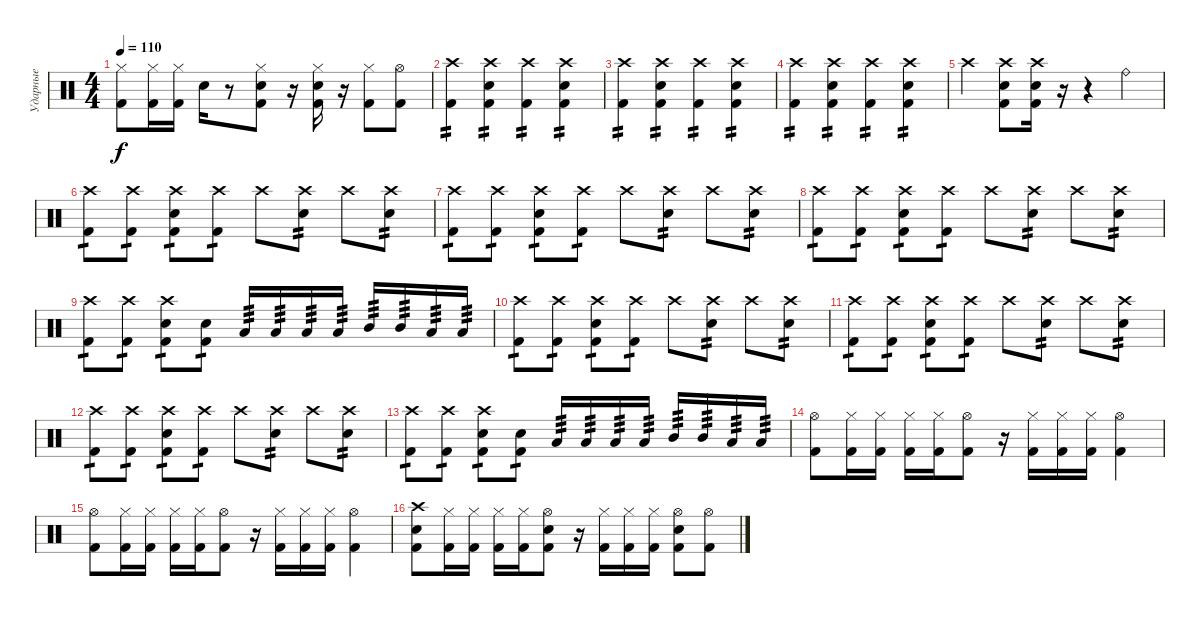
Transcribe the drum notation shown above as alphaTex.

\track ("Ударные" "Ударные") {instrument percussion}
\staff {score}
\articulation defaults
\ts (4 4)
\tempo 110
\clef neutral
\ks c
("Hi-Hat (closed)" "Kick (hit) 2").8{dy f} ("Hi-Hat (closed)" "Kick (hit) 2").16 ("Hi-Hat (closed)" "Kick (hit) 2").16 "Snare (hit) 2".16 r.8 ("Snare (hit) 2" "Hi-Hat (closed)" "Kick (hit) 2").8 r.16 ("Snare (hit) 2" "Hi-Hat (closed)" "Kick (hit) 2").16 r.16 ("Hi-Hat (closed)" "Kick (hit) 2").8 ("Hi-Hat (open)" "Kick (hit) 2").8 |
("Crash high (hit)" "Kick (hit) 2").4{tp 2} ("Crash high (hit)" "Snare (hit) 2" "Kick (hit) 2").4{tp 2} ("Crash high (hit)" "Kick (hit) 2").4{tp 2} ("Crash high (hit)" "Snare (hit) 2" "Kick (hit) 2").4{tp 2} |
("Crash high (hit)" "Kick (hit) 2").4{tp 2} ("Crash high (hit)" "Snare (hit) 2" "Kick (hit) 2").4{tp 2} ("Crash high (hit)" "Kick (hit) 2").4{tp 2} ("Crash high (hit)" "Snare (hit) 2" "Kick (hit) 2").4{tp 2} |
("Crash high (hit)" "Kick (hit) 2").4{tp 2} ("Crash high (hit)" "Snare (hit) 2" "Kick (hit) 2").4{tp 2} ("Crash high (hit)" "Kick (hit) 2").4{tp 2} ("Crash high (hit)" "Snare (hit) 2" "Kick (hit) 2").4{tp 2} |
"Crash high (hit)".4 ("Crash high (hit)" "Snare (hit) 2" "Kick (hit) 2").8 ("Crash high (hit)" "Snare (hit) 2" "Kick (hit) 2").16 r.16 r.4 "Ride (bell)".4 |
("Crash high (hit)" "Kick (hit) 2").8{tp 1} ("Crash high (hit)" "Kick (hit) 2").8{tp 1} ("Crash high (hit)" "Snare (hit) 2" "Kick (hit) 2").8{tp 1} ("Crash high (hit)" "Kick (hit) 2").8{tp 1} "Crash high (hit)".8 ("Crash high (hit)" "Snare (hit) 2").8{tp 2} "Crash high (hit)".8 ("Crash high (hit)" "Snare (hit) 2").8{tp 2} |
("Crash high (hit)" "Kick (hit) 2").8{tp 1} ("Crash high (hit)" "Kick (hit) 2").8{tp 1} ("Crash high (hit)" "Snare (hit) 2" "Kick (hit) 2").8{tp 1} ("Crash high (hit)" "Kick (hit) 2").8{tp 1} "Crash high (hit)".8 ("Crash high (hit)" "Snare (hit) 2").8{tp 2} "Crash high (hit)".8 ("Crash high (hit)" "Snare (hit) 2").8{tp 2} |
("Crash high (hit)" "Kick (hit) 2").8{tp 1} ("Crash high (hit)" "Kick (hit) 2").8{tp 1} ("Crash high (hit)" "Snare (hit) 2" "Kick (hit) 2").8{tp 1} ("Crash high (hit)" "Kick (hit) 2").8{tp 1} "Crash high (hit)".8 ("Crash high (hit)" "Snare (hit) 2").8{tp 2} "Crash high (hit)".8 ("Crash high (hit)" "Snare (hit) 2").8{tp 2} |
("Crash high (hit)" "Kick (hit) 2").8{tp 1} ("Crash high (hit)" "Kick (hit) 2").8{tp 1} ("Crash high (hit)" "Snare (hit) 2" "Kick (hit) 2").8{tp 1} ("Snare (hit) 2" "Kick (hit) 2").8{tp 1} "Low Tom (hit)".16{tp 3} "Low Tom (hit)".16{tp 3} "Low Floor Tom (hit)".16{tp 3} "Low Floor Tom (hit)".16{tp 3} "Mid Tom (hit)".16{tp 3} "Mid Tom (hit)".16{tp 3} "Low Floor Tom (hit)".16{tp 3} "Low Floor Tom (hit)".16{tp 3} |
("Crash high (hit)" "Kick (hit) 2").8{tp 1} ("Crash high (hit)" "Kick (hit) 2").8{tp 1} ("Crash high (hit)" "Snare (hit) 2" "Kick (hit) 2").8{tp 1} ("Crash high (hit)" "Kick (hit) 2").8{tp 1} "Crash high (hit)".8 ("Crash high (hit)" "Snare (hit) 2").8{tp 2} "Crash high (hit)".8 ("Crash high (hit)" "Snare (hit) 2").8{tp 2} |
("Crash high (hit)" "Kick (hit) 2").8{tp 1} ("Crash high (hit)" "Kick (hit) 2").8{tp 1} ("Crash high (hit)" "Snare (hit) 2" "Kick (hit) 2").8{tp 1} ("Crash high (hit)" "Kick (hit) 2").8{tp 1} "Crash high (hit)".8 ("Crash high (hit)" "Snare (hit) 2").8{tp 2} "Crash high (hit)".8 ("Crash high (hit)" "Snare (hit) 2").8{tp 2} |
("Crash high (hit)" "Kick (hit) 2").8{tp 1} ("Crash high (hit)" "Kick (hit) 2").8{tp 1} ("Crash high (hit)" "Snare (hit) 2" "Kick (hit) 2").8{tp 1} ("Crash high (hit)" "Kick (hit) 2").8{tp 1} "Crash high (hit)".8 ("Crash high (hit)" "Snare (hit) 2").8{tp 2} "Crash high (hit)".8 ("Crash high (hit)" "Snare (hit) 2").8{tp 2} |
("Crash high (hit)" "Kick (hit) 2").8{tp 1} ("Crash high (hit)" "Kick (hit) 2").8{tp 1} ("Crash high (hit)" "Snare (hit) 2" "Kick (hit) 2").8{tp 1} ("Snare (hit) 2" "Kick (hit) 2").8{tp 1} "Low Tom (hit)".16{tp 3} "Low Tom (hit)".16{tp 3} "Low Floor Tom (hit)".16{tp 3} "Low Floor Tom (hit)".16{tp 3} "Mid Tom (hit)".16{tp 3} "Mid Tom (hit)".16{tp 3} "Low Floor Tom (hit)".16{tp 3} "Low Floor Tom (hit)".16{tp 3} |
("Hi-Hat (open)" "Kick (hit) 2").8 ("Hi-Hat (closed)" "Kick (hit) 2").16 ("Hi-Hat (closed)" "Kick (hit) 2").16 ("Hi-Hat (closed)" "Kick (hit) 2").16 ("Hi-Hat (closed)" "Kick (hit) 2").16 ("Hi-Hat (open)" "Kick (hit) 2").8 r.16 ("Hi-Hat (closed)" "Kick (hit) 2").16 ("Hi-Hat (closed)" "Kick (hit) 2").16 ("Hi-Hat (closed)" "Kick (hit) 2").16 ("Hi-Hat (open)" "Kick (hit) 2").4 |
("Hi-Hat (open)" "Kick (hit) 2").8 ("Hi-Hat (closed)" "Kick (hit) 2").16 ("Hi-Hat (closed)" "Kick (hit) 2").16 ("Hi-Hat (closed)" "Kick (hit) 2").16 ("Hi-Hat (closed)" "Kick (hit) 2").16 ("Hi-Hat (open)" "Kick (hit) 2").8 r.16 ("Hi-Hat (closed)" "Kick (hit) 2").16 ("Hi-Hat (closed)" "Kick (hit) 2").16 ("Hi-Hat (closed)" "Kick (hit) 2").16 ("Hi-Hat (open)" "Kick (hit) 2").4 |
("Crash high (hit)" "Snare (hit) 2" "Kick (hit) 2").8 ("Hi-Hat (closed)" "Kick (hit) 2").16 ("Hi-Hat (closed)" "Kick (hit) 2").16 ("Hi-Hat (closed)" "Kick (hit) 2").16 ("Hi-Hat (closed)" "Kick (hit) 2").16 ("Hi-Hat (open)" "Snare (hit) 2" "Kick (hit) 2").8 r.16 ("Hi-Hat (closed)" "Kick (hit) 2").16 ("Hi-Hat (closed)" "Kick (hit) 2").16 ("Hi-Hat (closed)" "Kick (hit) 2").16 ("Hi-Hat (open)" "Snare (hit) 2" "Kick (hit) 2").8 ("Hi-Hat (open)" "Kick (hit) 2").8
